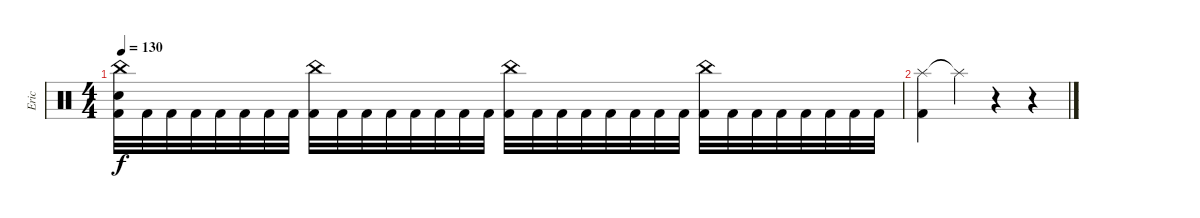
\track ("Eric" "Eric") {instrument percussion}
\staff {score}
\articulation defaults
\ts (4 4)
\tempo 130
\clef neutral
\ks c
("China (hit)" "Electric Snare (hit)" "Kick (hit) 2").32{dy f} "Kick (hit) 2".32 "Kick (hit) 2".32 "Kick (hit) 2".32 "Kick (hit) 2".32 "Kick (hit) 2".32 "Kick (hit) 2".32 "Kick (hit) 2".32 ("China (hit)" "Kick (hit) 2").32 "Kick (hit) 2".32 "Kick (hit) 2".32 "Kick (hit) 2".32 "Kick (hit) 2".32 "Kick (hit) 2".32 "Kick (hit) 2".32 "Kick (hit) 2".32 ("China (hit)" "Kick (hit) 2").32 "Kick (hit) 2".32 "Kick (hit) 2".32 "Kick (hit) 2".32 "Kick (hit) 2".32 "Kick (hit) 2".32 "Kick (hit) 2".32 "Kick (hit) 2".32 ("China (hit)" "Kick (hit) 2").32 "Kick (hit) 2".32 "Kick (hit) 2".32 "Kick (hit) 2".32 "Kick (hit) 2".32 "Kick (hit) 2".32 "Kick (hit) 2".32 "Kick (hit) 2".32 |
("Splash (hit)" "Kick (hit) 2").4 "Splash (hit)"{t}.4 r.4 r.4
